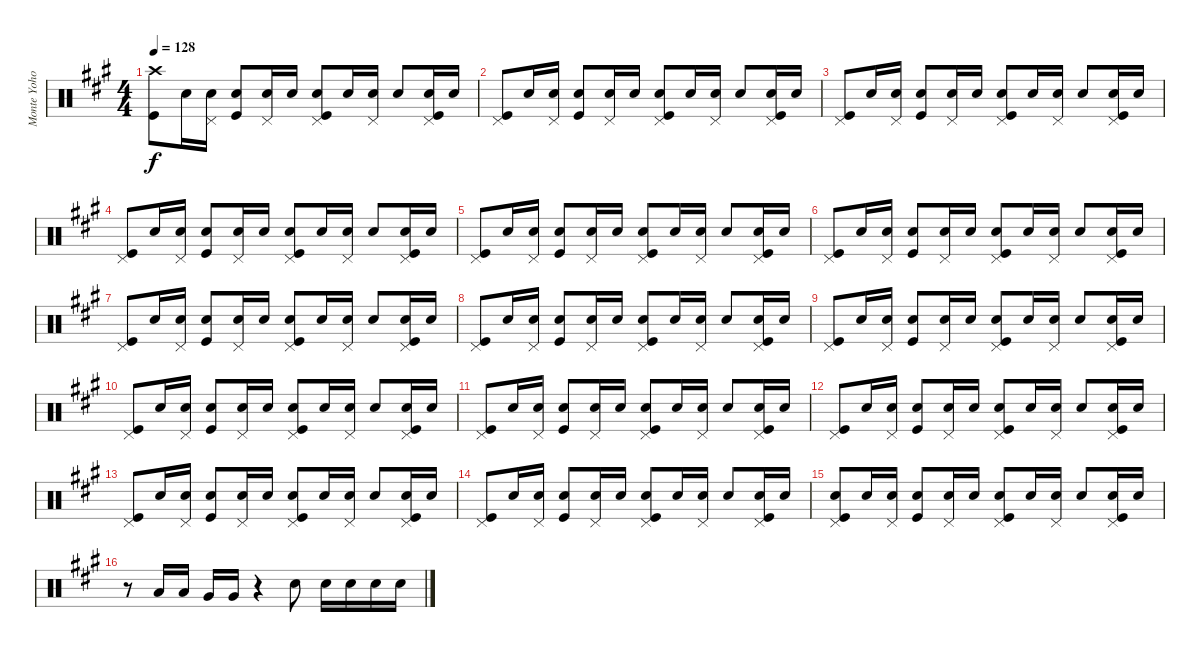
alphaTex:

\track ("Monte Yoho Drums" "Monte Yoho") {instrument percussion}
\staff {score}
\articulation defaults
\ts (4 4)
\tempo 128
\clef neutral
\ks a
("Crash high (hit)" "Kick (hit)").8{dy f} "Snare (hit) 2".16 ("Pedal Hi-Hat (hit)" "Snare (hit) 2").16 ("Snare (hit) 2" "Kick (hit)").8 ("Pedal Hi-Hat (hit)" "Snare (hit) 2").16 "Snare (hit) 2".16 ("Pedal Hi-Hat (hit)" "Snare (hit) 2" "Kick (hit)").8 "Snare (hit) 2".16 ("Pedal Hi-Hat (hit)" "Snare (hit) 2").16 "Snare (hit) 2".8 ("Pedal Hi-Hat (hit)" "Snare (hit) 2" "Kick (hit)").16 "Snare (hit) 2".16 |
("Pedal Hi-Hat (hit)" "Kick (hit)").8 "Snare (hit) 2".16 ("Pedal Hi-Hat (hit)" "Snare (hit) 2").16 ("Snare (hit) 2" "Kick (hit)").8 ("Pedal Hi-Hat (hit)" "Snare (hit) 2").16 "Snare (hit) 2".16 ("Pedal Hi-Hat (hit)" "Snare (hit) 2" "Kick (hit)").8 "Snare (hit) 2".16 ("Pedal Hi-Hat (hit)" "Snare (hit) 2").16 "Snare (hit) 2".8 ("Pedal Hi-Hat (hit)" "Snare (hit) 2" "Kick (hit)").16 "Snare (hit) 2".16 |
("Pedal Hi-Hat (hit)" "Kick (hit)").8 "Snare (hit) 2".16 ("Pedal Hi-Hat (hit)" "Snare (hit) 2").16 ("Snare (hit) 2" "Kick (hit)").8 ("Pedal Hi-Hat (hit)" "Snare (hit) 2").16 "Snare (hit) 2".16 ("Pedal Hi-Hat (hit)" "Snare (hit) 2" "Kick (hit)").8 "Snare (hit) 2".16 ("Pedal Hi-Hat (hit)" "Snare (hit) 2").16 "Snare (hit) 2".8 ("Pedal Hi-Hat (hit)" "Snare (hit) 2" "Kick (hit)").16 "Snare (hit) 2".16 |
("Pedal Hi-Hat (hit)" "Kick (hit)").8 "Snare (hit) 2".16 ("Pedal Hi-Hat (hit)" "Snare (hit) 2").16 ("Snare (hit) 2" "Kick (hit)").8 ("Pedal Hi-Hat (hit)" "Snare (hit) 2").16 "Snare (hit) 2".16 ("Pedal Hi-Hat (hit)" "Snare (hit) 2" "Kick (hit)").8 "Snare (hit) 2".16 ("Pedal Hi-Hat (hit)" "Snare (hit) 2").16 "Snare (hit) 2".8 ("Pedal Hi-Hat (hit)" "Snare (hit) 2" "Kick (hit)").16 "Snare (hit) 2".16 |
("Pedal Hi-Hat (hit)" "Kick (hit)").8 "Snare (hit) 2".16 ("Pedal Hi-Hat (hit)" "Snare (hit) 2").16 ("Snare (hit) 2" "Kick (hit)").8 ("Pedal Hi-Hat (hit)" "Snare (hit) 2").16 "Snare (hit) 2".16 ("Pedal Hi-Hat (hit)" "Snare (hit) 2" "Kick (hit)").8 "Snare (hit) 2".16 ("Pedal Hi-Hat (hit)" "Snare (hit) 2").16 "Snare (hit) 2".8 ("Pedal Hi-Hat (hit)" "Snare (hit) 2" "Kick (hit)").16 "Snare (hit) 2".16 |
("Pedal Hi-Hat (hit)" "Kick (hit)").8 "Snare (hit) 2".16 ("Pedal Hi-Hat (hit)" "Snare (hit) 2").16 ("Snare (hit) 2" "Kick (hit)").8 ("Pedal Hi-Hat (hit)" "Snare (hit) 2").16 "Snare (hit) 2".16 ("Pedal Hi-Hat (hit)" "Snare (hit) 2" "Kick (hit)").8 "Snare (hit) 2".16 ("Pedal Hi-Hat (hit)" "Snare (hit) 2").16 "Snare (hit) 2".8 ("Pedal Hi-Hat (hit)" "Snare (hit) 2" "Kick (hit)").16 "Snare (hit) 2".16 |
("Pedal Hi-Hat (hit)" "Kick (hit)").8 "Snare (hit) 2".16 ("Pedal Hi-Hat (hit)" "Snare (hit) 2").16 ("Snare (hit) 2" "Kick (hit)").8 ("Pedal Hi-Hat (hit)" "Snare (hit) 2").16 "Snare (hit) 2".16 ("Pedal Hi-Hat (hit)" "Snare (hit) 2" "Kick (hit)").8 "Snare (hit) 2".16 ("Pedal Hi-Hat (hit)" "Snare (hit) 2").16 "Snare (hit) 2".8 ("Pedal Hi-Hat (hit)" "Snare (hit) 2" "Kick (hit)").16 "Snare (hit) 2".16 |
("Pedal Hi-Hat (hit)" "Kick (hit)").8 "Snare (hit) 2".16 ("Pedal Hi-Hat (hit)" "Snare (hit) 2").16 ("Snare (hit) 2" "Kick (hit)").8 ("Pedal Hi-Hat (hit)" "Snare (hit) 2").16 "Snare (hit) 2".16 ("Pedal Hi-Hat (hit)" "Snare (hit) 2" "Kick (hit)").8 "Snare (hit) 2".16 ("Pedal Hi-Hat (hit)" "Snare (hit) 2").16 "Snare (hit) 2".8 ("Pedal Hi-Hat (hit)" "Snare (hit) 2" "Kick (hit)").16 "Snare (hit) 2".16 |
("Pedal Hi-Hat (hit)" "Kick (hit)").8 "Snare (hit) 2".16 ("Pedal Hi-Hat (hit)" "Snare (hit) 2").16 ("Snare (hit) 2" "Kick (hit)").8 ("Pedal Hi-Hat (hit)" "Snare (hit) 2").16 "Snare (hit) 2".16 ("Pedal Hi-Hat (hit)" "Snare (hit) 2" "Kick (hit)").8 "Snare (hit) 2".16 ("Pedal Hi-Hat (hit)" "Snare (hit) 2").16 "Snare (hit) 2".8 ("Pedal Hi-Hat (hit)" "Snare (hit) 2" "Kick (hit)").16 "Snare (hit) 2".16 |
("Pedal Hi-Hat (hit)" "Kick (hit)").8 "Snare (hit) 2".16 ("Pedal Hi-Hat (hit)" "Snare (hit) 2").16 ("Snare (hit) 2" "Kick (hit)").8 ("Pedal Hi-Hat (hit)" "Snare (hit) 2").16 "Snare (hit) 2".16 ("Pedal Hi-Hat (hit)" "Snare (hit) 2" "Kick (hit)").8 "Snare (hit) 2".16 ("Pedal Hi-Hat (hit)" "Snare (hit) 2").16 "Snare (hit) 2".8 ("Pedal Hi-Hat (hit)" "Snare (hit) 2" "Kick (hit)").16 "Snare (hit) 2".16 |
("Pedal Hi-Hat (hit)" "Kick (hit)").8 "Snare (hit) 2".16 ("Pedal Hi-Hat (hit)" "Snare (hit) 2").16 ("Snare (hit) 2" "Kick (hit)").8 ("Pedal Hi-Hat (hit)" "Snare (hit) 2").16 "Snare (hit) 2".16 ("Pedal Hi-Hat (hit)" "Snare (hit) 2" "Kick (hit)").8 "Snare (hit) 2".16 ("Pedal Hi-Hat (hit)" "Snare (hit) 2").16 "Snare (hit) 2".8 ("Pedal Hi-Hat (hit)" "Snare (hit) 2" "Kick (hit)").16 "Snare (hit) 2".16 |
("Pedal Hi-Hat (hit)" "Kick (hit)").8 "Snare (hit) 2".16 ("Pedal Hi-Hat (hit)" "Snare (hit) 2").16 ("Snare (hit) 2" "Kick (hit)").8 ("Pedal Hi-Hat (hit)" "Snare (hit) 2").16 "Snare (hit) 2".16 ("Pedal Hi-Hat (hit)" "Snare (hit) 2" "Kick (hit)").8 "Snare (hit) 2".16 ("Pedal Hi-Hat (hit)" "Snare (hit) 2").16 "Snare (hit) 2".8 ("Pedal Hi-Hat (hit)" "Snare (hit) 2" "Kick (hit)").16 "Snare (hit) 2".16 |
("Pedal Hi-Hat (hit)" "Kick (hit)").8 "Snare (hit) 2".16 ("Pedal Hi-Hat (hit)" "Snare (hit) 2").16 ("Snare (hit) 2" "Kick (hit)").8 ("Pedal Hi-Hat (hit)" "Snare (hit) 2").16 "Snare (hit) 2".16 ("Pedal Hi-Hat (hit)" "Snare (hit) 2" "Kick (hit)").8 "Snare (hit) 2".16 ("Pedal Hi-Hat (hit)" "Snare (hit) 2").16 "Snare (hit) 2".8 ("Pedal Hi-Hat (hit)" "Snare (hit) 2" "Kick (hit)").16 "Snare (hit) 2".16 |
("Pedal Hi-Hat (hit)" "Kick (hit)").8 "Snare (hit) 2".16 ("Pedal Hi-Hat (hit)" "Snare (hit) 2").16 ("Snare (hit) 2" "Kick (hit)").8 ("Pedal Hi-Hat (hit)" "Snare (hit) 2").16 "Snare (hit) 2".16 ("Pedal Hi-Hat (hit)" "Snare (hit) 2" "Kick (hit)").8 "Snare (hit) 2".16 ("Pedal Hi-Hat (hit)" "Snare (hit) 2").16 "Snare (hit) 2".8 ("Pedal Hi-Hat (hit)" "Snare (hit) 2" "Kick (hit)").16 "Snare (hit) 2".16 |
("Pedal Hi-Hat (hit)" "Snare (hit) 2" "Kick (hit)").8 "Snare (hit) 2".16 ("Pedal Hi-Hat (hit)" "Snare (hit) 2").16 ("Snare (hit) 2" "Kick (hit)").8 ("Pedal Hi-Hat (hit)" "Snare (hit) 2").16 "Snare (hit) 2".16 ("Pedal Hi-Hat (hit)" "Snare (hit) 2" "Kick (hit)").8 "Snare (hit) 2".16 ("Pedal Hi-Hat (hit)" "Snare (hit) 2").16 "Snare (hit) 2".8 ("Pedal Hi-Hat (hit)" "Snare (hit) 2" "Kick (hit)").16 "Snare (hit) 2".16 |
r.8 "Low Tom (hit)".16 "Low Tom (hit)".16 "Very Low Tom (hit)".16 "Very Low Tom (hit)".16 r.4 "Snare (hit) 2".8 "Snare (hit) 2".16 "Snare (hit) 2".16 "Snare (hit) 2".16 "Snare (hit) 2".16
